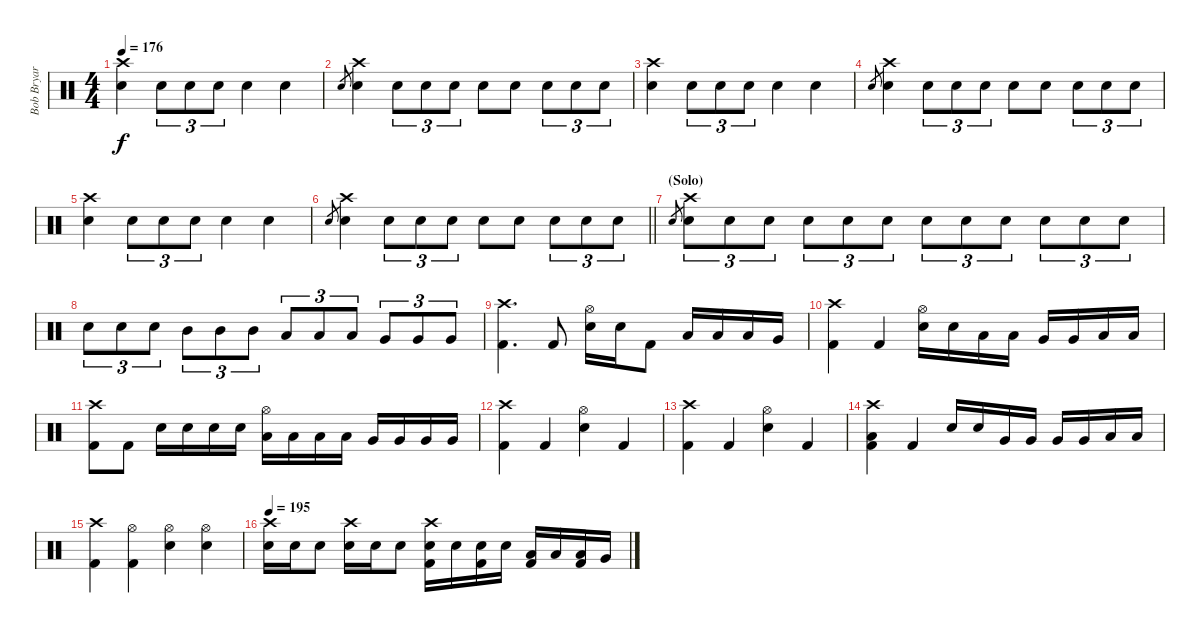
\track ("Bob Bryar (percussion)" "Bob Bryar ") {instrument percussion}
\staff {score}
\articulation defaults
\ts (4 4)
\tempo 176
\clef neutral
\ks c
("Crash high (hit)" "Electric Snare (hit)").4{dy f} "Electric Snare (hit)".8{tu (3 2)} "Electric Snare (hit)".8{tu (3 2)} "Electric Snare (hit)".8{tu (3 2)} "Electric Snare (hit)".4 "Electric Snare (hit)".4 |
"Electric Snare (hit)".8{gr} ("Crash high (hit)" "Electric Snare (hit)").4 "Electric Snare (hit)".8{tu (3 2)} "Electric Snare (hit)".8{tu (3 2)} "Electric Snare (hit)".8{tu (3 2)} "Electric Snare (hit)".8 "Electric Snare (hit)".8 "Electric Snare (hit)".8{tu (3 2)} "Electric Snare (hit)".8{tu (3 2)} "Electric Snare (hit)".8{tu (3 2)} |
("Crash high (hit)" "Electric Snare (hit)").4 "Electric Snare (hit)".8{tu (3 2)} "Electric Snare (hit)".8{tu (3 2)} "Electric Snare (hit)".8{tu (3 2)} "Electric Snare (hit)".4 "Electric Snare (hit)".4 |
"Electric Snare (hit)".8{gr} ("Crash high (hit)" "Electric Snare (hit)").4 "Electric Snare (hit)".8{tu (3 2)} "Electric Snare (hit)".8{tu (3 2)} "Electric Snare (hit)".8{tu (3 2)} "Electric Snare (hit)".8 "Electric Snare (hit)".8 "Electric Snare (hit)".8{tu (3 2)} "Electric Snare (hit)".8{tu (3 2)} "Electric Snare (hit)".8{tu (3 2)} |
("Crash high (hit)" "Electric Snare (hit)").4 "Electric Snare (hit)".8{tu (3 2)} "Electric Snare (hit)".8{tu (3 2)} "Electric Snare (hit)".8{tu (3 2)} "Electric Snare (hit)".4 "Electric Snare (hit)".4 |
\barLineRight lightlight "Electric Snare (hit)".8{gr}
("Crash high (hit)" "Electric Snare (hit)").4 "Electric Snare (hit)".8{tu (3 2)} "Electric Snare (hit)".8{tu (3 2)} "Electric Snare (hit)".8{tu (3 2)} "Electric Snare (hit)".8 "Electric Snare (hit)".8 "Electric Snare (hit)".8{tu (3 2)} "Electric Snare (hit)".8{tu (3 2)} "Electric Snare (hit)".8{tu (3 2)} |
\section ("" "(Solo)")
"Electric Snare (hit)".8{gr} ("Crash high (hit)" "Electric Snare (hit)").8{tu (3 2)} "Electric Snare (hit)".8{tu (3 2)} "Electric Snare (hit)".8{tu (3 2)} "Electric Snare (hit)".8{tu (3 2)} "Electric Snare (hit)".8{tu (3 2)} "Electric Snare (hit)".8{tu (3 2)} "Electric Snare (hit)".8{tu (3 2)} "Electric Snare (hit)".8{tu (3 2)} "Electric Snare (hit)".8{tu (3 2)} "Electric Snare (hit)".8{tu (3 2)} "Electric Snare (hit)".8{tu (3 2)} "Electric Snare (hit)".8{tu (3 2)} |
"Electric Snare (hit)".8{tu (3 2)} "Electric Snare (hit)".8{tu (3 2)} "Electric Snare (hit)".8{tu (3 2)} "Mid Tom (hit)".8{tu (3 2)} "Mid Tom (hit)".8{tu (3 2)} "Mid Tom (hit)".8{tu (3 2)} "Low Tom (hit)".8{tu (3 2)} "Low Tom (hit)".8{tu (3 2)} "Low Tom (hit)".8{tu (3 2)} "Very Low Tom (hit)".8{tu (3 2)} "Very Low Tom (hit)".8{tu (3 2)} "Very Low Tom (hit)".8{tu (3 2)} |
("Crash high (hit)" "Kick (hit) 2").4{d} "Kick (hit) 2".8 ("Hi-Hat (open)" "Electric Snare (hit)").16 "Electric Snare (hit)".16 "Kick (hit) 2".8 "Low Tom (hit)".16 "Low Tom (hit)".16 "Low Tom (hit)".16 "Very Low Tom (hit)".16 |
("Crash high (hit)" "Kick (hit) 2").4 "Kick (hit) 2".4 ("Hi-Hat (open)" "Electric Snare (hit)").16 "Electric Snare (hit)".16 "Low Tom (hit)".16 "Low Tom (hit)".16 "Very Low Tom (hit)".16 "Very Low Tom (hit)".16 "Low Floor Tom (hit)".16 "Low Floor Tom (hit)".16 |
("Crash high (hit)" "Kick (hit) 2").8 "Kick (hit) 2".8 "Electric Snare (hit)".16 "Electric Snare (hit)".16 "Electric Snare (hit)".16 "Electric Snare (hit)".16 ("Hi-Hat (open)" "Low Tom (hit)").16 "Low Tom (hit)".16 "Low Tom (hit)".16 "Low Tom (hit)".16 "Very Low Tom (hit)".16 "Very Low Tom (hit)".16 "Very Low Tom (hit)".16 "Very Low Tom (hit)".16 |
("Crash high (hit)" "Kick (hit) 2").4 "Kick (hit) 2".4 ("Hi-Hat (open)" "Electric Snare (hit)").4 "Kick (hit) 2".4 |
("Crash high (hit)" "Kick (hit) 2").4 "Kick (hit) 2".4 ("Hi-Hat (open)" "Electric Snare (hit)").4 "Kick (hit) 2".4 |
("Crash high (hit)" "Low Floor Tom (hit)" "Kick (hit) 2").4 "Kick (hit) 2".4 "Electric Snare (hit)".16 "Electric Snare (hit)".16 "Very Low Tom (hit)".16 "Very Low Tom (hit)".16 "Very Low Tom (hit)".16 "Very Low Tom (hit)".16 "Low Floor Tom (hit)".16 "Low Floor Tom (hit)".16 |
("Crash high (hit)" "Kick (hit) 2").4 ("Hi-Hat (open)" "Kick (hit) 2").4 ("Hi-Hat (open)" "Electric Snare (hit)").4 ("Hi-Hat (open)" "Electric Snare (hit)").4 |
\tempo 195
("Crash high (hit)" "Electric Snare (hit)").16 "Electric Snare (hit)".16 "Electric Snare (hit)".8 ("Crash high (hit)" "Electric Snare (hit)").16 "Electric Snare (hit)".16 "Electric Snare (hit)".8 ("Crash high (hit)" "Electric Snare (hit)" "Kick (hit) 2").16 "Electric Snare (hit)".16 ("Electric Snare (hit)" "Kick (hit) 2").16 "Electric Snare (hit)".16 ("Low Tom (hit)" "Kick (hit) 2").16 "Low Tom (hit)".16 ("Low Tom (hit)" "Kick (hit) 2").16 "Very Low Tom (hit)".16
